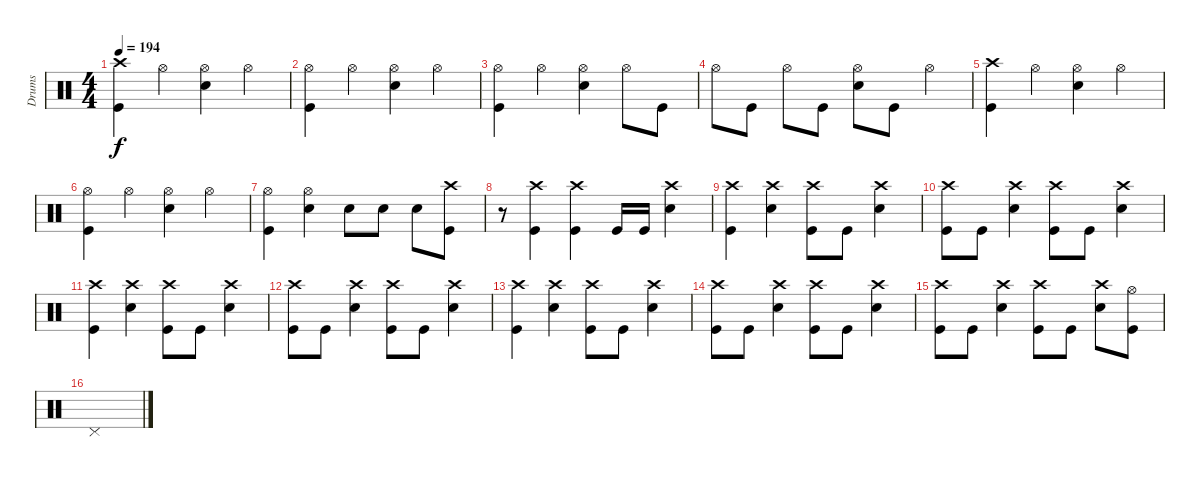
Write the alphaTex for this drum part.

\track ("Drums" "Drums") {instrument percussion}
\staff {score}
\articulation defaults
\ts (4 4)
\tempo 194
\clef neutral
\ks c
("Crash high (hit)" "Kick (hit)").4{dy f} "Hi-Hat (open)".4 ("Hi-Hat (open)" "Electric Snare (hit)").4 "Hi-Hat (open)".4 |
("Hi-Hat (open)" "Kick (hit)").4 "Hi-Hat (open)".4 ("Hi-Hat (open)" "Electric Snare (hit)").4 "Hi-Hat (open)".4 |
("Hi-Hat (open)" "Kick (hit)").4 "Hi-Hat (open)".4 ("Hi-Hat (open)" "Electric Snare (hit)").4 "Hi-Hat (open)".8 "Kick (hit)".8 |
"Hi-Hat (open)".8 "Kick (hit)".8 "Hi-Hat (open)".8 "Kick (hit)".8 ("Hi-Hat (open)" "Electric Snare (hit)").8 "Kick (hit)".8 "Hi-Hat (open)".4 |
("Crash high (hit)" "Kick (hit)").4 "Hi-Hat (open)".4 ("Hi-Hat (open)" "Electric Snare (hit)").4 "Hi-Hat (open)".4 |
("Hi-Hat (open)" "Kick (hit)").4 "Hi-Hat (open)".4 ("Hi-Hat (open)" "Electric Snare (hit)").4 "Hi-Hat (open)".4 |
("Hi-Hat (open)" "Kick (hit)").4 ("Hi-Hat (open)" "Electric Snare (hit)").4 "Electric Snare (hit)".8 "Electric Snare (hit)".8 "Electric Snare (hit)".8 ("Crash high (hit)" "Kick (hit)").8 |
r.8 ("Crash high (hit)" "Kick (hit)").4 ("Crash high (hit)" "Kick (hit)").4 "Kick (hit)".16 "Kick (hit)".16 ("Crash high (hit)" "Electric Snare (hit)").4 |
("Crash high (hit)" "Kick (hit)").4 ("Crash high (hit)" "Electric Snare (hit)").4 ("Crash high (hit)" "Kick (hit)").8 "Kick (hit)".8 ("Crash high (hit)" "Electric Snare (hit)").4 |
("Crash high (hit)" "Kick (hit)").8 "Kick (hit)".8 ("Crash high (hit)" "Electric Snare (hit)").4 ("Crash high (hit)" "Kick (hit)").8 "Kick (hit)".8 ("Crash high (hit)" "Electric Snare (hit)").4 |
("Crash high (hit)" "Kick (hit)").4 ("Crash high (hit)" "Electric Snare (hit)").4 ("Crash high (hit)" "Kick (hit)").8 "Kick (hit)".8 ("Crash high (hit)" "Electric Snare (hit)").4 |
("Crash high (hit)" "Kick (hit)").8 "Kick (hit)".8 ("Crash high (hit)" "Electric Snare (hit)").4 ("Crash high (hit)" "Kick (hit)").8 "Kick (hit)".8 ("Crash high (hit)" "Electric Snare (hit)").4 |
("Crash high (hit)" "Kick (hit)").4 ("Crash high (hit)" "Electric Snare (hit)").4 ("Crash high (hit)" "Kick (hit)").8 "Kick (hit)".8 ("Crash high (hit)" "Electric Snare (hit)").4 |
("Crash high (hit)" "Kick (hit)").8 "Kick (hit)".8 ("Crash high (hit)" "Electric Snare (hit)").4 ("Crash high (hit)" "Kick (hit)").8 "Kick (hit)".8 ("Crash high (hit)" "Electric Snare (hit)").4 |
("Crash high (hit)" "Kick (hit)").8 "Kick (hit)".8 ("Crash high (hit)" "Electric Snare (hit)").4 ("Crash high (hit)" "Kick (hit)").8 "Kick (hit)".8 ("Crash high (hit)" "Electric Snare (hit)").8 ("Hi-Hat (open)" "Kick (hit)").8 |
"Pedal Hi-Hat (hit)".1
